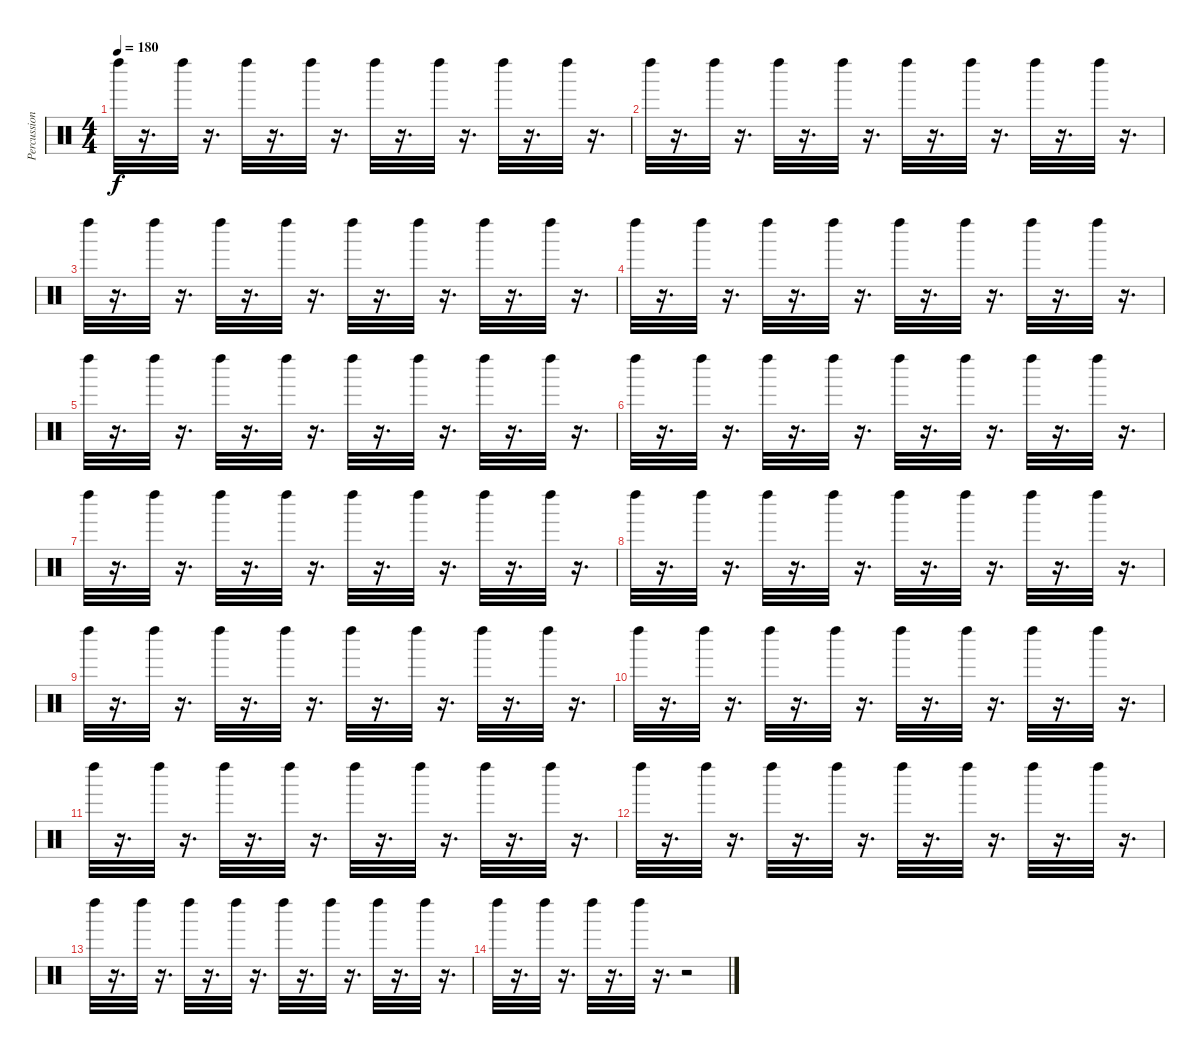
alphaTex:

\track ("Percussioni" "Percussion") {instrument percussion}
\staff {score}
\articulation defaults
\ts (4 4)
\tempo 180
\clef neutral
\ks c "Left Maraca (hit)".32{dy f}
r.16{d} "Left Maraca (hit)".32 r.16{d} "Left Maraca (hit)".32 r.16{d} "Left Maraca (hit)".32 r.16{d} "Left Maraca (hit)".32 r.16{d} "Left Maraca (hit)".32 r.16{d} "Left Maraca (hit)".32 r.16{d} "Left Maraca (hit)".32 r.16{d} |
"Left Maraca (hit)".32 r.16{d} "Left Maraca (hit)".32 r.16{d} "Left Maraca (hit)".32 r.16{d} "Left Maraca (hit)".32 r.16{d} "Left Maraca (hit)".32 r.16{d} "Left Maraca (hit)".32 r.16{d} "Left Maraca (hit)".32 r.16{d} "Left Maraca (hit)".32 r.16{d} |
"Left Maraca (hit)".32 r.16{d} "Left Maraca (hit)".32 r.16{d} "Left Maraca (hit)".32 r.16{d} "Left Maraca (hit)".32 r.16{d} "Left Maraca (hit)".32 r.16{d} "Left Maraca (hit)".32 r.16{d} "Left Maraca (hit)".32 r.16{d} "Left Maraca (hit)".32 r.16{d} |
"Left Maraca (hit)".32 r.16{d} "Left Maraca (hit)".32 r.16{d} "Left Maraca (hit)".32 r.16{d} "Left Maraca (hit)".32 r.16{d} "Left Maraca (hit)".32 r.16{d} "Left Maraca (hit)".32 r.16{d} "Left Maraca (hit)".32 r.16{d} "Left Maraca (hit)".32 r.16{d} |
"Left Maraca (hit)".32 r.16{d} "Left Maraca (hit)".32 r.16{d} "Left Maraca (hit)".32 r.16{d} "Left Maraca (hit)".32 r.16{d} "Left Maraca (hit)".32 r.16{d} "Left Maraca (hit)".32 r.16{d} "Left Maraca (hit)".32 r.16{d} "Left Maraca (hit)".32 r.16{d} |
"Left Maraca (hit)".32 r.16{d} "Left Maraca (hit)".32 r.16{d} "Left Maraca (hit)".32 r.16{d} "Left Maraca (hit)".32 r.16{d} "Left Maraca (hit)".32 r.16{d} "Left Maraca (hit)".32 r.16{d} "Left Maraca (hit)".32 r.16{d} "Left Maraca (hit)".32 r.16{d} |
"Left Maraca (hit)".32 r.16{d} "Left Maraca (hit)".32 r.16{d} "Left Maraca (hit)".32 r.16{d} "Left Maraca (hit)".32 r.16{d} "Left Maraca (hit)".32 r.16{d} "Left Maraca (hit)".32 r.16{d} "Left Maraca (hit)".32 r.16{d} "Left Maraca (hit)".32 r.16{d} |
"Left Maraca (hit)".32 r.16{d} "Left Maraca (hit)".32 r.16{d} "Left Maraca (hit)".32 r.16{d} "Left Maraca (hit)".32 r.16{d} "Left Maraca (hit)".32 r.16{d} "Left Maraca (hit)".32 r.16{d} "Left Maraca (hit)".32 r.16{d} "Left Maraca (hit)".32 r.16{d} |
"Left Maraca (hit)".32 r.16{d} "Left Maraca (hit)".32 r.16{d} "Left Maraca (hit)".32 r.16{d} "Left Maraca (hit)".32 r.16{d} "Left Maraca (hit)".32 r.16{d} "Left Maraca (hit)".32 r.16{d} "Left Maraca (hit)".32 r.16{d} "Left Maraca (hit)".32 r.16{d} |
"Left Maraca (hit)".32 r.16{d} "Left Maraca (hit)".32 r.16{d} "Left Maraca (hit)".32 r.16{d} "Left Maraca (hit)".32 r.16{d} "Left Maraca (hit)".32 r.16{d} "Left Maraca (hit)".32 r.16{d} "Left Maraca (hit)".32 r.16{d} "Left Maraca (hit)".32 r.16{d} |
"Left Maraca (hit)".32 r.16{d} "Left Maraca (hit)".32 r.16{d} "Left Maraca (hit)".32 r.16{d} "Left Maraca (hit)".32 r.16{d} "Left Maraca (hit)".32 r.16{d} "Left Maraca (hit)".32 r.16{d} "Left Maraca (hit)".32 r.16{d} "Left Maraca (hit)".32 r.16{d} |
"Left Maraca (hit)".32 r.16{d} "Left Maraca (hit)".32 r.16{d} "Left Maraca (hit)".32 r.16{d} "Left Maraca (hit)".32 r.16{d} "Left Maraca (hit)".32 r.16{d} "Left Maraca (hit)".32 r.16{d} "Left Maraca (hit)".32 r.16{d} "Left Maraca (hit)".32 r.16{d} |
"Left Maraca (hit)".32 r.16{d} "Left Maraca (hit)".32 r.16{d} "Left Maraca (hit)".32 r.16{d} "Left Maraca (hit)".32 r.16{d} "Left Maraca (hit)".32 r.16{d} "Left Maraca (hit)".32 r.16{d} "Left Maraca (hit)".32 r.16{d} "Left Maraca (hit)".32 r.16{d} |
"Left Maraca (hit)".32 r.16{d} "Left Maraca (hit)".32 r.16{d} "Left Maraca (hit)".32 r.16{d} "Left Maraca (hit)".32 r.16{d} r.2
